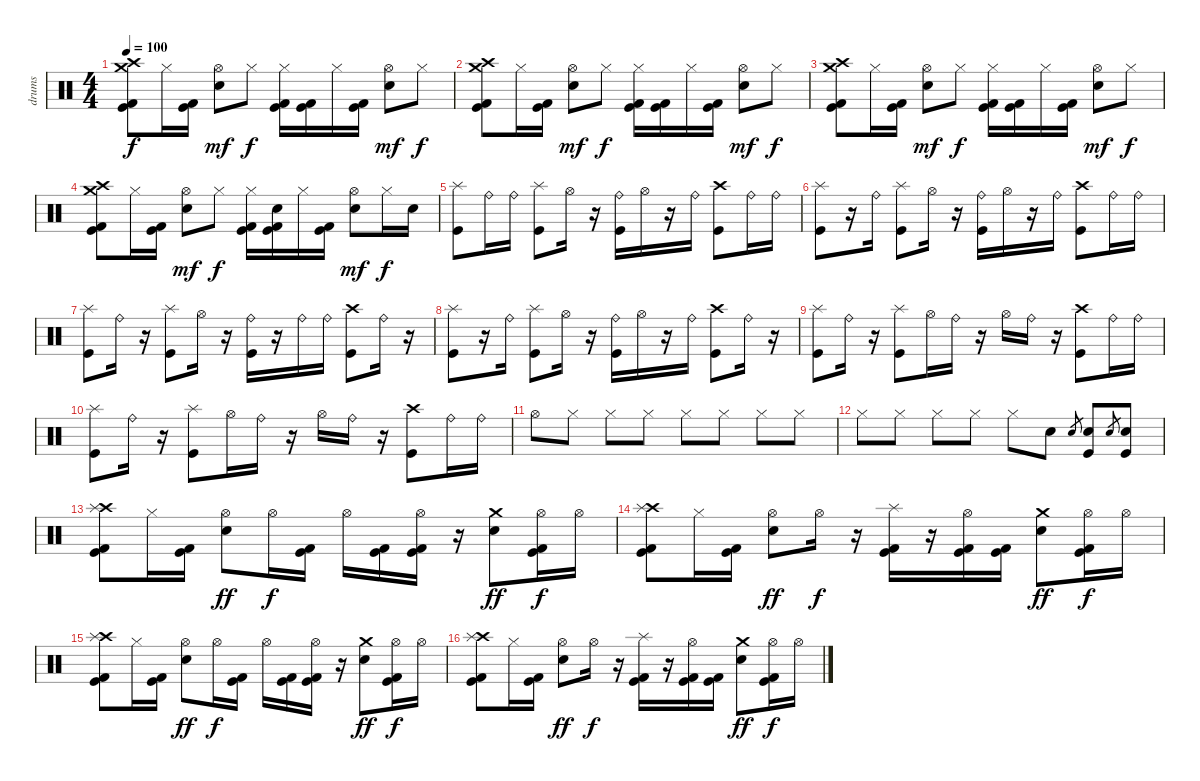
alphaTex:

\track ("drums" "drums") {instrument percussion}
\staff {score}
\articulation defaults
\ts (4 4)
\tempo 100
\clef neutral
\ks c
("Crash high (hit)" "Crash medium (hit)" "Kick (hit) 2" "Kick (hit)").8{dy f} "Hi-Hat (closed)".16 ("Kick (hit) 2" "Kick (hit)").16 ("Hi-Hat (open)" "Electric Snare (hit)").8{dy mf} "Hi-Hat (closed)".8{dy f} ("Hi-Hat (closed)" "Kick (hit) 2" "Kick (hit)").16 ("Kick (hit) 2" "Kick (hit)").16 "Hi-Hat (closed)".16 ("Kick (hit) 2" "Kick (hit)").16 ("Hi-Hat (open)" "Electric Snare (hit)").8{dy mf} "Hi-Hat (closed)".8{dy f} |
("Crash high (hit)" "Crash medium (hit)" "Kick (hit) 2" "Kick (hit)").8 "Hi-Hat (closed)".16 ("Kick (hit) 2" "Kick (hit)").16 ("Hi-Hat (open)" "Electric Snare (hit)").8{dy mf} "Hi-Hat (closed)".8{dy f} ("Hi-Hat (closed)" "Kick (hit) 2" "Kick (hit)").16 ("Kick (hit) 2" "Kick (hit)").16 "Hi-Hat (closed)".16 ("Kick (hit) 2" "Kick (hit)").16 ("Hi-Hat (open)" "Electric Snare (hit)").8{dy mf} "Hi-Hat (closed)".8{dy f} |
("Crash high (hit)" "Crash medium (hit)" "Kick (hit) 2" "Kick (hit)").8 "Hi-Hat (closed)".16 ("Kick (hit) 2" "Kick (hit)").16 ("Hi-Hat (open)" "Electric Snare (hit)").8{dy mf} "Hi-Hat (closed)".8{dy f} ("Hi-Hat (closed)" "Kick (hit) 2" "Kick (hit)").16 ("Kick (hit) 2" "Kick (hit)").16 "Hi-Hat (closed)".16 ("Kick (hit) 2" "Kick (hit)").16 ("Hi-Hat (open)" "Electric Snare (hit)").8{dy mf} "Hi-Hat (closed)".8{dy f} |
("Crash high (hit)" "Crash medium (hit)" "Kick (hit) 2" "Kick (hit)").8 "Hi-Hat (closed)".16 ("Kick (hit) 2" "Kick (hit)").16 ("Hi-Hat (open)" "Electric Snare (hit)").8{dy mf} "Hi-Hat (closed)".8{dy f} ("Hi-Hat (closed)" "Kick (hit) 2" "Kick (hit)").16 ("Electric Snare (hit)" "Kick (hit) 2" "Kick (hit)").16 "Hi-Hat (closed)".16 ("Kick (hit) 2" "Kick (hit)").16 ("Hi-Hat (open)" "Electric Snare (hit)").8{dy mf} "Hi-Hat (closed)".16{dy f} "Electric Snare (hit)".16 |
("Splash (hit)" "Kick (hit)").8 "Ride (bell)".16 "Ride (bell)".16 ("Splash (hit)" "Kick (hit)").8 "Hi-Hat (open)".16 r.16 ("Ride (bell)" "Kick (hit)").16 "Hi-Hat (open)".16 r.16 "Ride (bell)".16 ("Crash high (hit)" "Kick (hit)").8 "Ride (bell)".16 "Ride (bell)".16 |
("Splash (hit)" "Kick (hit)").8 r.16 "Ride (bell)".16 ("Splash (hit)" "Kick (hit)").8 "Hi-Hat (open)".16 r.16 ("Ride (bell)" "Kick (hit)").16 "Hi-Hat (open)".16 r.16 "Ride (bell)".16 ("Crash high (hit)" "Kick (hit)").8 "Ride (bell)".16 "Ride (bell)".16 |
("Splash (hit)" "Kick (hit)").8 "Ride (bell)".16 r.16 ("Splash (hit)" "Kick (hit)").8 "Hi-Hat (open)".16 r.16 ("Ride (bell)" "Kick (hit)").16 r.16 "Ride (bell)".16 "Ride (bell)".16 ("Crash high (hit)" "Kick (hit)").8 "Ride (bell)".16 r.16 |
("Splash (hit)" "Kick (hit)").8 r.16 "Ride (bell)".16 ("Splash (hit)" "Kick (hit)").8 "Hi-Hat (open)".16 r.16 ("Ride (bell)" "Kick (hit)").16 "Hi-Hat (open)".16 r.16 "Ride (bell)".16 ("Crash high (hit)" "Kick (hit)").8 "Ride (bell)".16 r.16 |
("Splash (hit)" "Kick (hit)").8 "Ride (bell)".16 r.16 ("Splash (hit)" "Kick (hit)").8 "Hi-Hat (open)".16 "Ride (bell)".16 r.16 "Hi-Hat (open)".16 "Ride (bell)".16 r.16 ("Crash high (hit)" "Kick (hit)").8 "Ride (bell)".16 "Ride (bell)".16 |
("Splash (hit)" "Kick (hit)").8 "Ride (bell)".16 r.16 ("Splash (hit)" "Kick (hit)").8 "Hi-Hat (open)".16 "Ride (bell)".16 r.16 "Hi-Hat (open)".16 "Ride (bell)".16 r.16 ("Crash high (hit)" "Kick (hit)").8 "Ride (bell)".16 "Ride (bell)".16 |
"Hi-Hat (open)".8 "Hi-Hat (closed)".8 "Hi-Hat (closed)".8 "Hi-Hat (closed)".8 "Hi-Hat (closed)".8 "Hi-Hat (closed)".8 "Hi-Hat (closed)".8 "Hi-Hat (closed)".8 |
"Hi-Hat (closed)".8 "Hi-Hat (closed)".8 "Hi-Hat (closed)".8 "Hi-Hat (closed)".8 "Hi-Hat (closed)".8 "Snare (hit)".8 "Electric Snare (hit)".8{gr} ("Electric Snare (hit)" "Kick (hit)").8 "Electric Snare (hit)".8{gr} ("Electric Snare (hit)" "Kick (hit)").8 |
("Crash high (hit)" "Splash (hit)" "Kick (hit) 2" "Kick (hit)").8 "Hi-Hat (closed)".16 ("Kick (hit) 2" "Kick (hit)").16 ("Hi-Hat (open)" "Electric Snare (hit)").8{dy ff} "Hi-Hat (open)".16{dy f} ("Kick (hit) 2" "Kick (hit)").16 "Hi-Hat (open)".16 ("Kick (hit) 2" "Kick (hit)").16 ("Hi-Hat (open)" "Kick (hit) 2" "Kick (hit)").16 r.16 ("Crash medium (hit)" "Electric Snare (hit)").8{dy ff} ("Hi-Hat (open)" "Kick (hit)" "Kick (hit) 2").16{dy f} "Hi-Hat (open)".16 |
("Crash high (hit)" "Splash (hit)" "Kick (hit) 2" "Kick (hit)").8 "Hi-Hat (closed)".16 ("Kick (hit) 2" "Kick (hit)").16 ("Hi-Hat (open)" "Electric Snare (hit)").8{dy ff} "Hi-Hat (open)".16{dy f} r.16 ("Splash (hit)" "Kick (hit) 2" "Kick (hit)").16 r.16 ("Hi-Hat (open)" "Kick (hit)" "Kick (hit) 2").16 ("Kick (hit)" "Kick (hit) 2").16 ("Crash medium (hit)" "Electric Snare (hit)").8{dy ff} ("Hi-Hat (open)" "Kick (hit)" "Kick (hit) 2").16{dy f} "Hi-Hat (open)".16 |
("Crash high (hit)" "Splash (hit)" "Kick (hit) 2" "Kick (hit)").8 "Hi-Hat (closed)".16 ("Kick (hit) 2" "Kick (hit)").16 ("Hi-Hat (open)" "Electric Snare (hit)").8{dy ff} "Hi-Hat (open)".16{dy f} ("Kick (hit) 2" "Kick (hit)").16 "Hi-Hat (open)".16 ("Kick (hit) 2" "Kick (hit)").16 ("Hi-Hat (open)" "Kick (hit) 2" "Kick (hit)").16 r.16 ("Crash medium (hit)" "Electric Snare (hit)").8{dy ff} ("Hi-Hat (open)" "Kick (hit)" "Kick (hit) 2").16{dy f} "Hi-Hat (open)".16 |
("Crash high (hit)" "Splash (hit)" "Kick (hit) 2" "Kick (hit)").8 "Hi-Hat (closed)".16 ("Kick (hit) 2" "Kick (hit)").16 ("Hi-Hat (open)" "Electric Snare (hit)").8{dy ff} "Hi-Hat (open)".16{dy f} r.16 ("Splash (hit)" "Kick (hit) 2" "Kick (hit)").16 r.16 ("Hi-Hat (open)" "Kick (hit)" "Kick (hit) 2").16 ("Kick (hit)" "Kick (hit) 2").16 ("Crash medium (hit)" "Electric Snare (hit)").8{dy ff} ("Hi-Hat (open)" "Kick (hit)" "Kick (hit) 2").16{dy f} "Hi-Hat (open)".16
